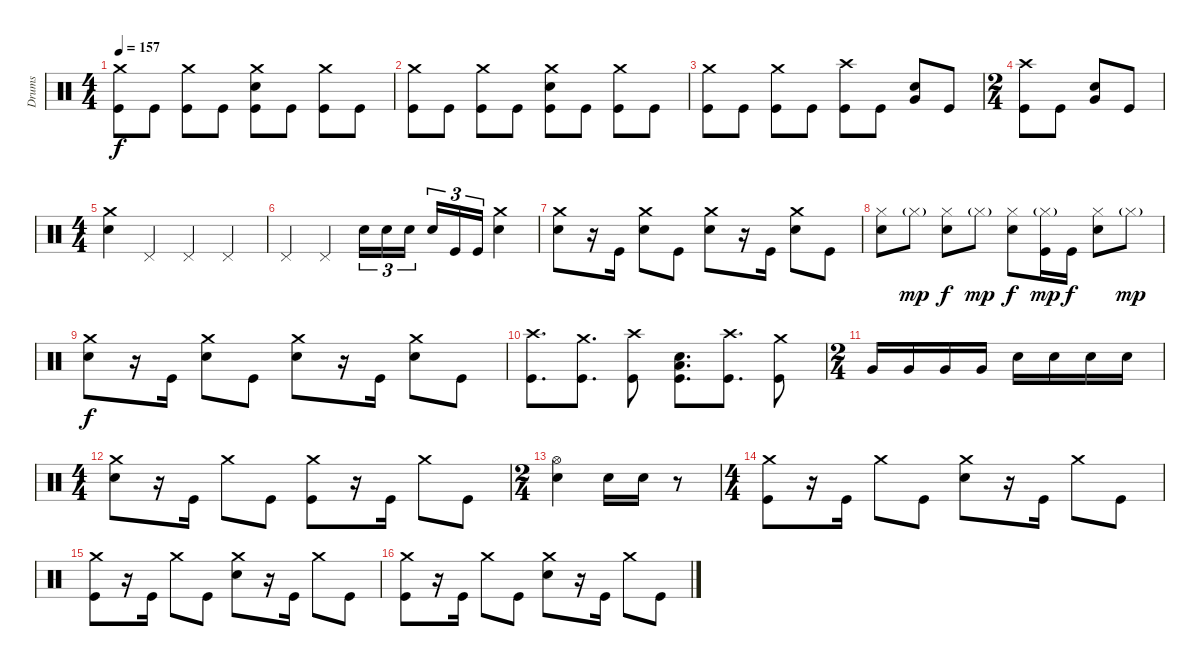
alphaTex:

\track ("Drums" "Drums") {instrument percussion}
\staff {score}
\articulation defaults
\ts (4 4)
\tempo 157
\clef neutral
\ks c
("Crash medium (hit)" "Kick (hit)").8{dy f} "Kick (hit)".8 ("Crash medium (hit)" "Kick (hit)").8 "Kick (hit)".8 ("Crash medium (hit)" "Electric Snare (hit)" "Kick (hit)").8 "Kick (hit)".8 ("Crash medium (hit)" "Kick (hit)").8 "Kick (hit)".8 |
("Crash medium (hit)" "Kick (hit)").8 "Kick (hit)".8 ("Crash medium (hit)" "Kick (hit)").8 "Kick (hit)".8 ("Crash medium (hit)" "Electric Snare (hit)" "Kick (hit)").8 "Kick (hit)".8 ("Crash medium (hit)" "Kick (hit)").8 "Kick (hit)".8 |
("Crash medium (hit)" "Kick (hit)").8 "Kick (hit)".8 ("Crash medium (hit)" "Kick (hit)").8 "Kick (hit)".8 ("Crash high (hit)" "Kick (hit)").8 "Kick (hit)".8 ("Very Low Tom (hit)" "Electric Snare (hit)").8 "Kick (hit)".8 |
\ts (2 4)
("Crash high (hit)" "Kick (hit)").8 "Kick (hit)".8 ("Very Low Tom (hit)" "Electric Snare (hit)").8 "Kick (hit)".8 |
\ts (4 4)
("Crash medium (hit)" "Electric Snare (hit)").4 "Pedal Hi-Hat (hit)".4 "Pedal Hi-Hat (hit)".4 "Pedal Hi-Hat (hit)".4 |
"Pedal Hi-Hat (hit)".4 "Pedal Hi-Hat (hit)".4 "Electric Snare (hit)".16{tu (3 2)} "Electric Snare (hit)".16{tu (3 2)} "Electric Snare (hit)".16{tu (3 2) beam splitsecondary} "Electric Snare (hit)".16{tu (3 2)} "Kick (hit)".16{tu (3 2)} "Kick (hit)".16{tu (3 2)} ("Crash medium (hit)" "Electric Snare (hit)").4 |
("Crash medium (hit)" "Electric Snare (hit)").8 r.16 "Kick (hit)".16 ("Crash medium (hit)" "Electric Snare (hit)").8 "Kick (hit)".8 ("Crash medium (hit)" "Electric Snare (hit)").8 r.16 "Kick (hit)".16 ("Crash medium (hit)" "Electric Snare (hit)").8 "Kick (hit)".8 |
("Hi-Hat (closed)" "Electric Snare (hit)").8 "Hi-Hat (closed)"{g}.8{dy mp} ("Hi-Hat (closed)" "Electric Snare (hit)").8{dy f} "Hi-Hat (closed)"{g}.8{dy mp} ("Hi-Hat (closed)" "Electric Snare (hit)").8{dy f} ("Hi-Hat (closed)"{g} "Kick (hit)").16{dy mp} "Kick (hit)".16{dy f} ("Hi-Hat (closed)" "Electric Snare (hit)").8 "Hi-Hat (closed)"{g}.8{dy mp} |
("Crash medium (hit)" "Electric Snare (hit)").8{dy f} r.16 "Kick (hit)".16 ("Crash medium (hit)" "Electric Snare (hit)").8 "Kick (hit)".8 ("Crash medium (hit)" "Electric Snare (hit)").8 r.16 "Kick (hit)".16 ("Crash medium (hit)" "Electric Snare (hit)").8 "Kick (hit)".8 |
("Crash high (hit)" "Kick (hit)").8{d} ("Crash medium (hit)" "Kick (hit)").8{d} ("Crash high (hit)" "Kick (hit)").8 ("Low Floor Tom (hit)" "Electric Snare (hit)" "Kick (hit)").8{d} ("Crash high (hit)" "Kick (hit)").8{d} ("Crash medium (hit)" "Kick (hit)").8 |
\ts (2 4)
"Very Low Tom (hit)".16 "Very Low Tom (hit)".16 "Very Low Tom (hit)".16 "Very Low Tom (hit)".16 "Electric Snare (hit)".16 "Electric Snare (hit)".16 "Electric Snare (hit)".16 "Electric Snare (hit)".16 |
\ts (4 4)
("Crash medium (hit)" "Electric Snare (hit)").8 r.16 "Kick (hit)".16 "Crash medium (hit)".8 "Kick (hit)".8 ("Crash medium (hit)" "Kick (hit)").8 r.16 "Kick (hit)".16 "Crash medium (hit)".8 "Kick (hit)".8 |
\ts (2 4)
("Hi-Hat (open)" "Electric Snare (hit)").4 "Electric Snare (hit)".16 "Electric Snare (hit)".16 r.8 |
\ts (4 4)
("Crash medium (hit)" "Kick (hit)").8 r.16 "Kick (hit)".16 "Crash medium (hit)".8 "Kick (hit)".8 ("Crash medium (hit)" "Electric Snare (hit)").8 r.16 "Kick (hit)".16 "Crash medium (hit)".8 "Kick (hit)".8 |
("Crash medium (hit)" "Kick (hit)").8 r.16 "Kick (hit)".16 "Crash medium (hit)".8 "Kick (hit)".8 ("Crash medium (hit)" "Electric Snare (hit)").8 r.16 "Kick (hit)".16 "Crash medium (hit)".8 "Kick (hit)".8 |
("Crash medium (hit)" "Kick (hit)").8 r.16 "Kick (hit)".16 "Crash medium (hit)".8 "Kick (hit)".8 ("Crash medium (hit)" "Electric Snare (hit)").8 r.16 "Kick (hit)".16 "Crash medium (hit)".8 "Kick (hit)".8
